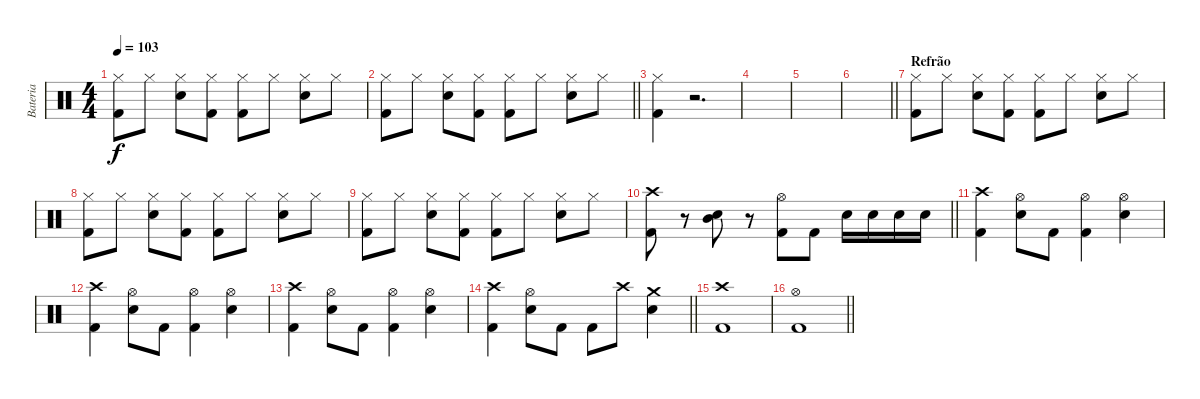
\track ("Bateria" "Bateria") {instrument percussion}
\staff {score}
\articulation defaults
\ts (4 4)
\tempo 103
\clef neutral
\ks c
("Hi-Hat (closed)" "Kick (hit) 2").8{dy f} "Hi-Hat (closed)".8 ("Hi-Hat (closed)" "Snare (hit) 2").8 ("Hi-Hat (closed)" "Kick (hit) 2").8 ("Hi-Hat (closed)" "Kick (hit) 2").8 "Hi-Hat (closed)".8 ("Hi-Hat (closed)" "Snare (hit) 2").8 "Hi-Hat (closed)".8 |
\barLineRight lightlight
("Hi-Hat (closed)" "Kick (hit) 2").8 "Hi-Hat (closed)".8 ("Hi-Hat (closed)" "Snare (hit) 2").8 ("Hi-Hat (closed)" "Kick (hit) 2").8 ("Hi-Hat (closed)" "Kick (hit) 2").8 "Hi-Hat (closed)".8 ("Hi-Hat (closed)" "Snare (hit) 2").8 "Hi-Hat (closed)".8 |
("Hi-Hat (closed)" "Kick (hit) 2").4 r.2{d} |
|
|
\barLineRight lightlight
|
\section ("" "Refrão")
("Hi-Hat (closed)" "Kick (hit) 2").8 "Hi-Hat (closed)".8 ("Hi-Hat (closed)" "Snare (hit) 2").8 ("Hi-Hat (closed)" "Kick (hit) 2").8 ("Hi-Hat (closed)" "Kick (hit) 2").8 "Hi-Hat (closed)".8 ("Hi-Hat (closed)" "Snare (hit) 2").8 "Hi-Hat (closed)".8 |
("Hi-Hat (closed)" "Kick (hit) 2").8 "Hi-Hat (closed)".8 ("Hi-Hat (closed)" "Snare (hit) 2").8 ("Hi-Hat (closed)" "Kick (hit) 2").8 ("Hi-Hat (closed)" "Kick (hit) 2").8 "Hi-Hat (closed)".8 ("Hi-Hat (closed)" "Snare (hit) 2").8 "Hi-Hat (closed)".8 |
("Hi-Hat (closed)" "Kick (hit) 2").8 "Hi-Hat (closed)".8 ("Hi-Hat (closed)" "Snare (hit) 2").8 ("Hi-Hat (closed)" "Kick (hit) 2").8 ("Hi-Hat (closed)" "Kick (hit) 2").8 "Hi-Hat (closed)".8 ("Hi-Hat (closed)" "Snare (hit) 2").8 "Hi-Hat (closed)".8 |
\barLineRight lightlight
("Crash high (hit)" "Kick (hit) 2").8 r.8 ("Mid Tom (hit)" "Snare (hit) 2").8 r.8 ("Hi-Hat (open)" "Kick (hit) 2").8 "Kick (hit) 2".8 "Snare (hit) 2".16 "Snare (hit) 2".16 "Snare (hit) 2".16 "Snare (hit) 2".16 |
("Crash high (hit)" "Kick (hit) 2").4 ("Hi-Hat (open)" "Snare (hit) 2").8 "Kick (hit) 2".8 ("Hi-Hat (open)" "Kick (hit) 2").4 ("Hi-Hat (open)" "Snare (hit) 2").4 |
("Crash high (hit)" "Kick (hit) 2").4 ("Hi-Hat (open)" "Snare (hit) 2").8 "Kick (hit) 2".8 ("Hi-Hat (open)" "Kick (hit) 2").4 ("Hi-Hat (open)" "Snare (hit) 2").4 |
("Crash high (hit)" "Kick (hit) 2").4 ("Hi-Hat (open)" "Snare (hit) 2").8 "Kick (hit) 2".8 ("Hi-Hat (open)" "Kick (hit) 2").4 ("Hi-Hat (open)" "Snare (hit) 2").4 |
\barLineRight lightlight
("Crash high (hit)" "Kick (hit) 2").4 ("Hi-Hat (open)" "Snare (hit) 2").8 "Kick (hit) 2".8 "Kick (hit) 2".8 "Crash high (hit)".8 ("Crash medium (hit)" "Snare (hit) 2").4 |
("Crash high (hit)" "Kick (hit) 2").1 |
\barLineRight lightlight
("Hi-Hat (open)" "Kick (hit) 2").1
